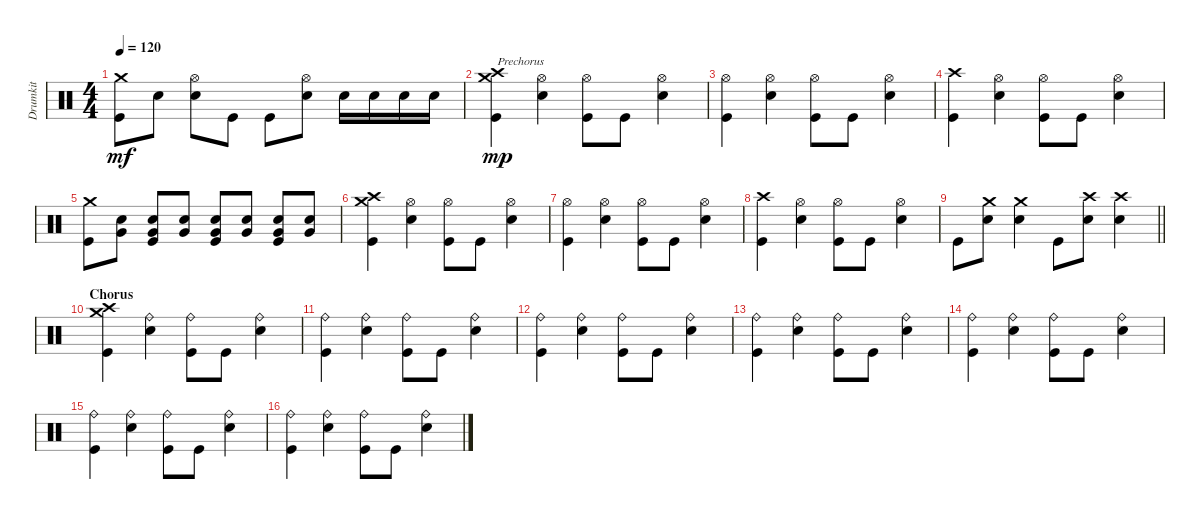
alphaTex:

\track ("Drumkit" "Drumkit") {instrument percussion}
\staff {score}
\articulation defaults
\ts (4 4)
\tempo 120
\clef neutral
\ks c
("Kick (hit)" "Crash medium (hit)").8{dy mf} "Snare (hit) 2".8 ("Snare (hit) 2" "Hi-Hat (open)").8 "Kick (hit)".8 "Kick (hit)".8 ("Snare (hit) 2" "Hi-Hat (open)").8 "Snare (hit) 2".16 "Snare (hit) 2".16 "Snare (hit) 2".16 "Snare (hit) 2".16 |
("Kick (hit)" "Crash high (hit)" "Crash medium (hit)").4{txt "Prechorus" dy mp} ("Snare (hit) 2" "Hi-Hat (open)").4 ("Kick (hit)" "Hi-Hat (open)").8 "Kick (hit)".8 ("Snare (hit) 2" "Hi-Hat (open)").4 |
("Kick (hit)" "Hi-Hat (open)").4 ("Snare (hit) 2" "Hi-Hat (open)").4 ("Kick (hit)" "Hi-Hat (open)").8 "Kick (hit)".8 ("Snare (hit) 2" "Hi-Hat (open)").4 |
("Kick (hit)" "Crash high (hit)").4 ("Snare (hit) 2" "Hi-Hat (open)").4 ("Kick (hit)" "Hi-Hat (open)").8 "Kick (hit)".8 ("Snare (hit) 2" "Hi-Hat (open)").4 |
("Kick (hit)" "Crash medium (hit)").8 ("Snare (hit) 2" "Very Low Tom (hit)").8 ("Snare (hit) 2" "Very Low Tom (hit)" "Kick (hit)").8 ("Snare (hit) 2" "Very Low Tom (hit)").8 ("Snare (hit) 2" "Very Low Tom (hit)" "Kick (hit)").8 ("Snare (hit) 2" "Very Low Tom (hit)").8 ("Snare (hit) 2" "Very Low Tom (hit)" "Kick (hit)").8 ("Snare (hit) 2" "Very Low Tom (hit)").8 |
("Kick (hit)" "Crash high (hit)" "Crash medium (hit)").4 ("Snare (hit) 2" "Hi-Hat (open)").4 ("Kick (hit)" "Hi-Hat (open)").8 "Kick (hit)".8 ("Snare (hit) 2" "Hi-Hat (open)").4 |
("Kick (hit)" "Hi-Hat (open)").4 ("Snare (hit) 2" "Hi-Hat (open)").4 ("Kick (hit)" "Hi-Hat (open)").8 "Kick (hit)".8 ("Snare (hit) 2" "Hi-Hat (open)").4 |
("Kick (hit)" "Crash high (hit)").4 ("Snare (hit) 2" "Hi-Hat (open)").4 ("Kick (hit)" "Hi-Hat (open)").8 "Kick (hit)".8 ("Snare (hit) 2" "Hi-Hat (open)").4 |
\barLineRight lightlight "Kick (hit)".8
("Snare (hit) 2" "Crash medium (hit)").8 ("Snare (hit) 2" "Crash medium (hit)").4 "Kick (hit)".8 ("Snare (hit) 2" "Crash high (hit)").8 ("Snare (hit) 2" "Crash high (hit)").4 |
\section ("" "Chorus")
("Kick (hit)" "Crash high (hit)" "Crash medium (hit)").4 ("Snare (hit) 2" "Ride (bell)").4 ("Kick (hit)" "Ride (bell)").8 "Kick (hit)".8 ("Snare (hit) 2" "Ride (bell)").4 |
("Kick (hit)" "Ride (bell)").4 ("Snare (hit) 2" "Ride (bell)").4 ("Kick (hit)" "Ride (bell)").8 "Kick (hit)".8 ("Snare (hit) 2" "Ride (bell)").4 |
("Kick (hit)" "Ride (bell)").4 ("Snare (hit) 2" "Ride (bell)").4 ("Kick (hit)" "Ride (bell)").8 "Kick (hit)".8 ("Snare (hit) 2" "Ride (bell)").4 |
("Kick (hit)" "Ride (bell)").4 ("Snare (hit) 2" "Ride (bell)").4 ("Kick (hit)" "Ride (bell)").8 "Kick (hit)".8 ("Snare (hit) 2" "Ride (bell)").4 |
("Kick (hit)" "Ride (bell)").4 ("Snare (hit) 2" "Ride (bell)").4 ("Kick (hit)" "Ride (bell)").8 "Kick (hit)".8 ("Snare (hit) 2" "Ride (bell)").4 |
("Kick (hit)" "Ride (bell)").4 ("Snare (hit) 2" "Ride (bell)").4 ("Kick (hit)" "Ride (bell)").8 "Kick (hit)".8 ("Snare (hit) 2" "Ride (bell)").4 |
("Kick (hit)" "Ride (bell)").4 ("Snare (hit) 2" "Ride (bell)").4 ("Kick (hit)" "Ride (bell)").8 "Kick (hit)".8 ("Snare (hit) 2" "Ride (bell)").4
